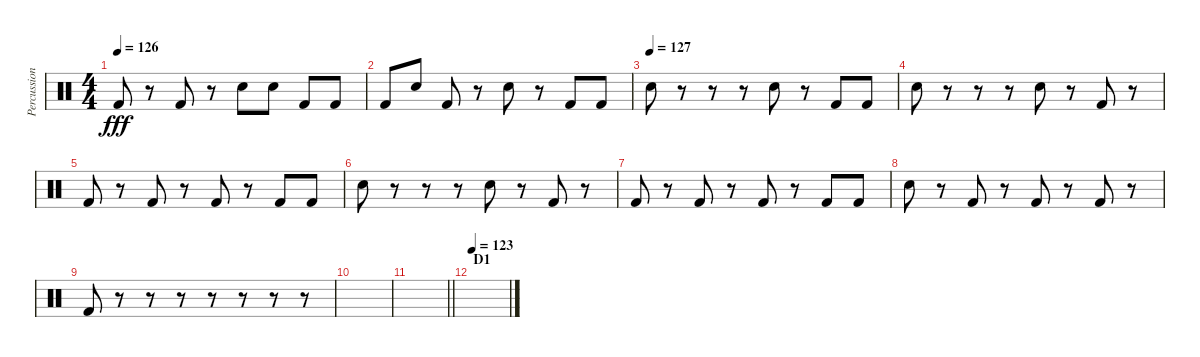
\track ("Percussion" "Percussion") {instrument percussion}
\staff {score}
\articulation defaults
\ts (4 4)
\tempo 126
\clef neutral
\ks c "Kick (hit) 2".8{dy fff}
r.8 "Kick (hit) 2".8 r.8 "Electric Snare (hit)".8 "Electric Snare (hit)".8 "Kick (hit) 2".8 "Kick (hit) 2".8 |
"Kick (hit) 2".8 "Electric Snare (hit)".8 "Kick (hit) 2".8 r.8 "Electric Snare (hit)".8 r.8 "Kick (hit) 2".8 "Kick (hit) 2".8 |
\tempo (127)
"Electric Snare (hit)".8 r.8 r.8 r.8 "Electric Snare (hit)".8 r.8 "Kick (hit) 2".8 "Kick (hit) 2".8 |
"Electric Snare (hit)".8 r.8 r.8 r.8 "Electric Snare (hit)".8 r.8 "Kick (hit) 2".8 r.8 |
"Kick (hit) 2".8 r.8 "Kick (hit) 2".8 r.8 "Kick (hit) 2".8 r.8 "Kick (hit) 2".8 "Kick (hit) 2".8 |
"Electric Snare (hit)".8 r.8 r.8 r.8 "Electric Snare (hit)".8 r.8 "Kick (hit) 2".8 r.8 |
"Kick (hit) 2".8 r.8 "Kick (hit) 2".8 r.8 "Kick (hit) 2".8 r.8 "Kick (hit) 2".8 "Kick (hit) 2".8 |
"Electric Snare (hit)".8 r.8 "Kick (hit) 2".8 r.8 "Kick (hit) 2".8 r.8 "Kick (hit) 2".8 r.8 |
"Kick (hit) 2".8 r.8 r.8 r.8 r.8 r.8 r.8 r.8 |
|
\barLineRight lightlight
|
\section ("" "D1")
\tempo 123
